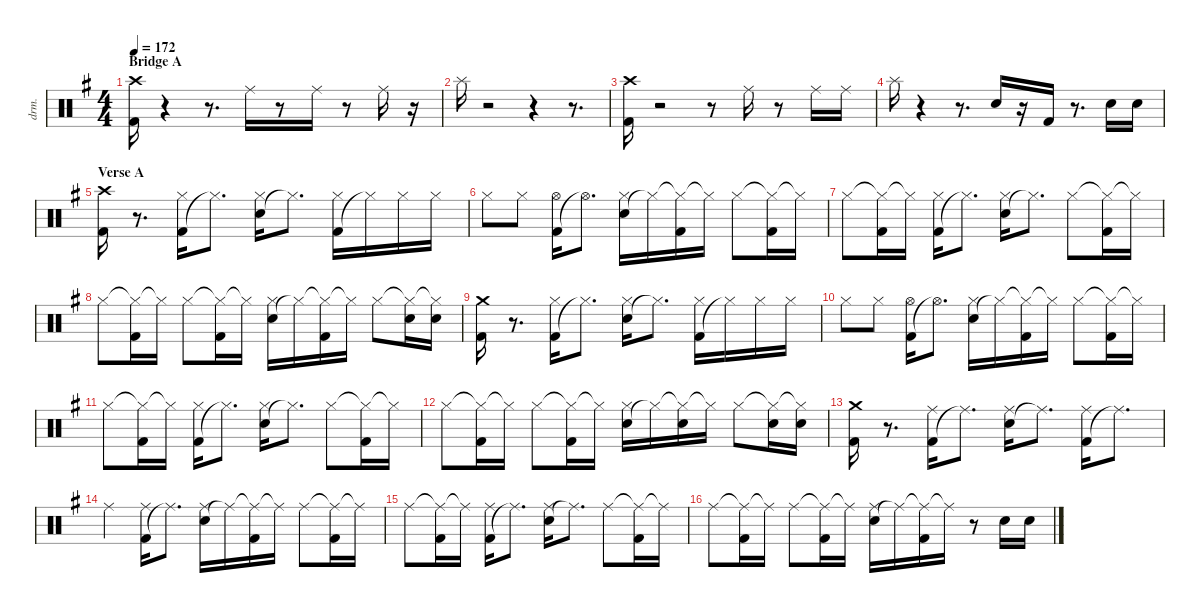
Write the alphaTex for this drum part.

\defaultSystemsLayout 4
\hideDynamics
\bracketExtendMode nobrackets
\otherSystemsTrackNameOrientation horizontal
\track ("Shinya" "drm.") {instrument percussion}
\staff {score}
\articulation defaults
\ts (4 4)
\section ("" "Bridge A")
\tempo 172
\clef neutral
\ks eminor
("Kick (hit) 2"{acc forcenatural} "Crash high (hit)"{acc #}).16{dy fff beam Down} r.4{beam Down} r.8{d beam Down} "Ride (middle)"{acc #}.16{beam Down} r.8{beam Down} "Ride (middle)"{acc #}.16{beam Down} r.8{beam Down} "Ride (middle)"{acc #}.16{beam Down} r.16{beam Down} |
"Splash (hit)"{acc forcenatural}.16{beam Down} r.2{beam Down} r.4{beam Down} r.8{d beam Down} |
("Kick (hit) 2"{acc forcenatural} "Crash high (hit)"{acc #}).16{beam Down} r.2{beam Down} r.8{beam Down} "Ride (middle)"{acc #}.16{beam Down} r.8{beam Down} "Ride (middle)"{acc #}.16{beam Down} "Ride (middle)"{acc #}.16{beam Down} |
"Splash (hit)"{acc forcenatural}.16{beam Down} r.4{beam Down} r.8{d beam Down} "Snare (hit) 2"{acc forcenatural}.16{beam Up} r.16{beam Up} "Kick (hit) 2"{acc forcenatural}.16{beam Up} r.8{d beam Up} "Snare (hit) 2"{acc forcenatural}.16{beam Down} "Snare (hit) 2"{acc forcenatural}.16{beam Down} |
\section ("" "Verse A")
("Kick (hit) 2"{acc forcenatural} "Crash high (hit)"{acc #}).16{beam Down} r.8{d beam Down} ("Kick (hit) 2"{acc forcenatural} "Hi-Hat (closed)"{acc #}).16{beam Down} "Hi-Hat (closed)"{t acc #}.8{d beam Down} ("Snare (hit) 2"{acc forcenatural} "Hi-Hat (closed)"{acc #}).16{beam Down} "Hi-Hat (closed)"{t acc #}.8{d beam Down} ("Kick (hit) 2"{acc forcenatural} "Hi-Hat (closed)"{acc #}).16{beam Down} "Hi-Hat (closed)"{t acc #}.16{beam Down} "Hi-Hat (closed)"{acc #}.16{beam Down} "Hi-Hat (closed)"{acc #}.16{beam Down} |
"Hi-Hat (closed)"{acc #}.8{beam Down} "Hi-Hat (closed)"{acc #}.8{beam Down} ("Kick (hit) 2"{acc forcenatural} "Hi-Hat (open)"{acc #}).16{beam Down} "Hi-Hat (open)"{t acc #}.8{d beam Down} ("Snare (hit) 2"{acc forcenatural} "Hi-Hat (closed)"{acc #}).16{beam Down} "Hi-Hat (closed)"{t acc #}.16{beam Down} ("Hi-Hat (closed)"{t acc #} "Kick (hit) 2"{acc forcenatural}).16{beam Down} "Hi-Hat (closed)"{t acc #}.16{beam Down} "Hi-Hat (closed)"{acc #}.8{beam Down} ("Hi-Hat (closed)"{t acc #} "Kick (hit) 2"{acc forcenatural}).16{beam Down} "Hi-Hat (closed)"{t acc #}.16{beam Down} |
"Hi-Hat (closed)"{acc #}.8{beam Down} ("Hi-Hat (closed)"{t acc #} "Kick (hit) 2"{acc forcenatural}).16{beam Down} "Hi-Hat (closed)"{t acc #}.16{beam Down} ("Kick (hit) 2"{acc forcenatural} "Hi-Hat (closed)"{acc #}).16{beam Down} "Hi-Hat (closed)"{t acc #}.8{d beam Down} ("Snare (hit) 2"{acc forcenatural} "Hi-Hat (closed)"{acc #}).16{beam Down} "Hi-Hat (closed)"{t acc #}.8{d beam Down} "Hi-Hat (closed)"{acc #}.8{beam Down} ("Hi-Hat (closed)"{t acc #} "Kick (hit) 2"{acc forcenatural}).16{beam Down} "Hi-Hat (closed)"{t acc #}.16{beam Down} |
"Hi-Hat (closed)"{acc #}.8{beam Down} ("Hi-Hat (closed)"{t acc #} "Kick (hit) 2"{acc forcenatural}).16{beam Down} "Hi-Hat (closed)"{t acc #}.16{beam Down} "Hi-Hat (closed)"{acc #}.8{beam Down} ("Hi-Hat (closed)"{t acc #} "Kick (hit) 2"{acc forcenatural}).16{beam Down} "Hi-Hat (closed)"{t acc #}.16{beam Down} ("Snare (hit) 2"{acc forcenatural} "Hi-Hat (closed)"{acc #}).16{beam Down} "Hi-Hat (closed)"{t acc #}.16{beam Down} ("Hi-Hat (closed)"{t acc #} "Kick (hit) 2"{acc forcenatural}).16{beam Down} "Hi-Hat (closed)"{t acc #}.16{beam Down} "Hi-Hat (closed)"{acc #}.8{beam Down} ("Hi-Hat (closed)"{t acc #} "Snare (hit) 2"{acc forcenatural}).16{beam Down} ("Hi-Hat (closed)"{t acc #} "Snare (hit) 2"{acc forcenatural}).16{beam Down} |
("Kick (hit) 2"{acc forcenatural} "Crash medium (hit)"{acc forcenatural}).16{beam Down} r.8{d beam Down} ("Kick (hit) 2"{acc forcenatural} "Hi-Hat (closed)"{acc #}).16{beam Down} "Hi-Hat (closed)"{t acc #}.8{d beam Down} ("Snare (hit) 2"{acc forcenatural} "Hi-Hat (closed)"{acc #}).16{beam Down} "Hi-Hat (closed)"{t acc #}.8{d beam Down} ("Kick (hit) 2"{acc forcenatural} "Hi-Hat (closed)"{acc #}).16{beam Down} "Hi-Hat (closed)"{t acc #}.16{beam Down} "Hi-Hat (closed)"{acc #}.16{beam Down} "Hi-Hat (closed)"{acc #}.16{beam Down} |
"Hi-Hat (closed)"{acc #}.8{beam Down} "Hi-Hat (closed)"{acc #}.8{beam Down} ("Kick (hit) 2"{acc forcenatural} "Hi-Hat (open)"{acc #}).16{beam Down} "Hi-Hat (open)"{t acc #}.8{d beam Down} ("Snare (hit) 2"{acc forcenatural} "Hi-Hat (closed)"{acc #}).16{beam Down} "Hi-Hat (closed)"{t acc #}.16{beam Down} ("Hi-Hat (closed)"{t acc #} "Kick (hit) 2"{acc forcenatural}).16{beam Down} "Hi-Hat (closed)"{t acc #}.16{beam Down} "Hi-Hat (closed)"{acc #}.8{beam Down} ("Hi-Hat (closed)"{t acc #} "Kick (hit) 2"{acc forcenatural}).16{beam Down} "Hi-Hat (closed)"{t acc #}.16{beam Down} |
"Hi-Hat (closed)"{acc #}.8{beam Down} ("Hi-Hat (closed)"{t acc #} "Kick (hit) 2"{acc forcenatural}).16{beam Down} "Hi-Hat (closed)"{t acc #}.16{beam Down} ("Kick (hit) 2"{acc forcenatural} "Hi-Hat (closed)"{acc #}).16{beam Down} "Hi-Hat (closed)"{t acc #}.8{d beam Down} ("Snare (hit) 2"{acc forcenatural} "Hi-Hat (closed)"{acc #}).16{beam Down} "Hi-Hat (closed)"{t acc #}.8{d beam Down} "Hi-Hat (closed)"{acc #}.8{beam Down} ("Hi-Hat (closed)"{t acc #} "Kick (hit) 2"{acc forcenatural}).16{beam Down} "Hi-Hat (closed)"{t acc #}.16{beam Down} |
"Hi-Hat (closed)"{acc #}.8{beam Down} ("Hi-Hat (closed)"{t acc #} "Kick (hit) 2"{acc forcenatural}).16{beam Down} "Hi-Hat (closed)"{t acc #}.16{beam Down} "Hi-Hat (closed)"{acc #}.8{beam Down} ("Hi-Hat (closed)"{t acc #} "Kick (hit) 2"{acc forcenatural}).16{beam Down} "Hi-Hat (closed)"{t acc #}.16{beam Down} ("Snare (hit) 2"{acc forcenatural} "Hi-Hat (closed)"{acc #}).16{beam Down} "Hi-Hat (closed)"{t acc #}.16{beam Down} ("Hi-Hat (closed)"{t acc #} "Snare (hit) 2"{acc forcenatural}).16{beam Down} "Hi-Hat (closed)"{t acc #}.16{beam Down} "Hi-Hat (closed)"{acc #}.8{beam Down} ("Hi-Hat (closed)"{t acc #} "Snare (hit) 2"{acc forcenatural}).16{beam Down} ("Hi-Hat (closed)"{t acc #} "Snare (hit) 2"{acc forcenatural}).16{beam Down} |
("Kick (hit) 2"{acc forcenatural} "Crash medium (hit)"{acc forcenatural}).16{beam Down} r.8{d beam Down} ("Kick (hit) 2"{acc forcenatural} "Ride (middle)"{acc #}).16{beam Down} "Ride (middle)"{t acc #}.8{d beam Down} ("Snare (hit) 2"{acc forcenatural} "Ride (middle)"{acc #}).16{beam Down} "Ride (middle)"{t acc #}.8{d beam Down} ("Kick (hit) 2"{acc forcenatural} "Ride (middle)"{acc #}).16{beam Down} "Ride (middle)"{t acc #}.8{d beam Down} |
"Ride (middle)"{acc #}.4{beam Down} ("Kick (hit) 2"{acc forcenatural} "Ride (middle)"{acc #}).16{beam Down} "Ride (middle)"{t acc #}.8{d beam Down} ("Snare (hit) 2"{acc forcenatural} "Ride (middle)"{acc #}).16{beam Down} "Ride (middle)"{t acc #}.16{beam Down} ("Ride (middle)"{t acc #} "Kick (hit) 2"{acc forcenatural}).16{beam Down} "Ride (middle)"{t acc #}.16{beam Down} "Ride (middle)"{acc #}.8{beam Down} ("Ride (middle)"{t acc #} "Kick (hit) 2"{acc forcenatural}).16{beam Down} "Ride (middle)"{t acc #}.16{beam Down} |
"Ride (middle)"{acc #}.8{beam Down} ("Ride (middle)"{t acc #} "Kick (hit) 2"{acc forcenatural}).16{beam Down} "Ride (middle)"{t acc #}.16{beam Down} ("Kick (hit) 2"{acc forcenatural} "Ride (middle)"{acc #}).16{beam Down} "Ride (middle)"{t acc #}.8{d beam Down} ("Snare (hit) 2"{acc forcenatural} "Ride (middle)"{acc #}).16{beam Down} "Ride (middle)"{t acc #}.8{d beam Down} "Ride (middle)"{acc #}.8{beam Down} ("Ride (middle)"{t acc #} "Kick (hit) 2"{acc forcenatural}).16{beam Down} "Ride (middle)"{t acc #}.16{beam Down} |
"Ride (middle)"{acc #}.8{beam Down} ("Ride (middle)"{t acc #} "Kick (hit) 2"{acc forcenatural}).16{beam Down} "Ride (middle)"{t acc #}.16{beam Down} "Ride (middle)"{acc #}.8{beam Down} ("Ride (middle)"{t acc #} "Kick (hit) 2"{acc forcenatural}).16{beam Down} "Ride (middle)"{t acc #}.16{beam Down} ("Snare (hit) 2"{acc forcenatural} "Ride (middle)"{acc #}).16{beam Down} "Ride (middle)"{t acc #}.16{beam Down} ("Ride (middle)"{t acc #} "Kick (hit) 2"{acc forcenatural}).16{beam Down} "Ride (middle)"{t acc #}.16{beam Down} r.8{beam Down} "Snare (hit) 2"{acc forcenatural}.16{beam Down} "Snare (hit) 2"{acc forcenatural}.16{beam Down}
